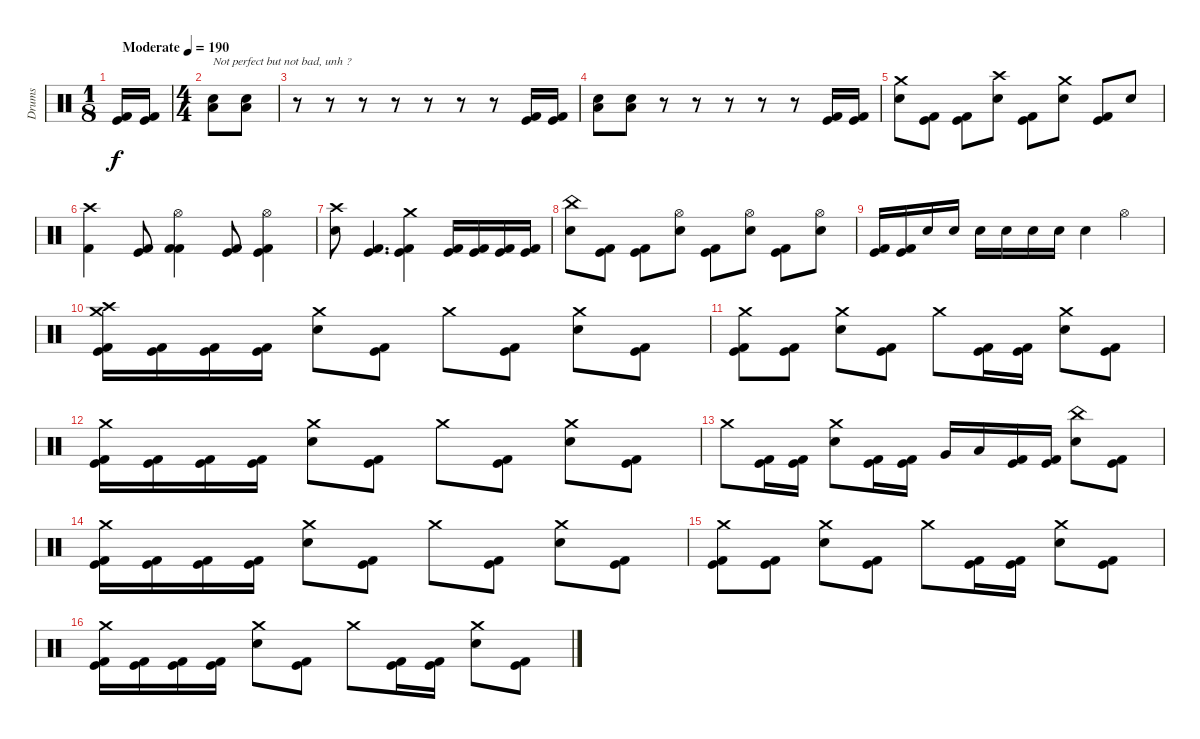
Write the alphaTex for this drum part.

\track ("Drums" "Drums") {instrument percussion}
\staff {score}
\articulation defaults
\ts (1 8)
\tempo (190 "Moderate")
\clef neutral
\ks c
("Kick (hit)" "Kick (hit) 2").16{dy f} ("Kick (hit)" "Kick (hit) 2").16 |
\ts (4 4)
("Electric Snare (hit)" "Low Floor Tom (hit)").8{txt "Not perfect but not bad, unh ?"} ("Electric Snare (hit)" "Low Floor Tom (hit)").8 |
r.8 r.8 r.8 r.8 r.8 r.8 r.8 ("Kick (hit)" "Kick (hit) 2").16 ("Kick (hit)" "Kick (hit) 2").16 |
("Electric Snare (hit)" "Low Floor Tom (hit)").8 ("Electric Snare (hit)" "Low Floor Tom (hit)").8 r.8 r.8 r.8 r.8 r.8 ("Kick (hit)" "Kick (hit) 2").16 ("Kick (hit)" "Kick (hit) 2").16 |
("Crash medium (hit)" "Electric Snare (hit)").8 ("Kick (hit)" "Kick (hit) 2").8 ("Kick (hit)" "Kick (hit) 2").8 ("Crash high (hit)" "Electric Snare (hit)").8 ("Kick (hit)" "Kick (hit) 2").8 ("Crash medium (hit)" "Electric Snare (hit)").8 ("Kick (hit)" "Kick (hit) 2").8 "Electric Snare (hit)".8 |
("Crash high (hit)" "Kick (hit) 2").4 ("Kick (hit)" "Kick (hit) 2").8 ("Hi-Hat (open)" "Kick (hit) 2" "Kick (hit) 2").4 ("Kick (hit)" "Kick (hit) 2").8 ("Hi-Hat (open)" "Kick (hit)" "Kick (hit) 2").4 |
("Crash high (hit)" "Electric Snare (hit)").8 ("Kick (hit)" "Kick (hit) 2").4{d} ("Crash medium (hit)" "Kick (hit)" "Kick (hit) 2").4 ("Kick (hit)" "Kick (hit) 2").16 ("Kick (hit)" "Kick (hit) 2").16 ("Kick (hit)" "Kick (hit) 2").16 ("Kick (hit)" "Kick (hit) 2").16 |
("China (hit)" "Electric Snare (hit)").8 ("Kick (hit)" "Kick (hit) 2").8 ("Kick (hit)" "Kick (hit) 2").8 ("Hi-Hat (open)" "Electric Snare (hit)").8 ("Kick (hit)" "Kick (hit) 2").8 ("Hi-Hat (open)" "Electric Snare (hit)").8 ("Kick (hit)" "Kick (hit) 2").8 ("Hi-Hat (open)" "Electric Snare (hit)").8 |
("Kick (hit)" "Kick (hit) 2").16 ("Kick (hit)" "Kick (hit) 2").16 "Electric Snare (hit)".16 "Electric Snare (hit)".16 "Electric Snare (hit)".16 "Electric Snare (hit)".16 "Electric Snare (hit)".16 "Electric Snare (hit)".16 "Electric Snare (hit)".4 "Hi-Hat (open)".4 |
("Crash high (hit)" "Crash medium (hit)" "Kick (hit)" "Kick (hit) 2").16 ("Kick (hit)" "Kick (hit) 2").16 ("Kick (hit)" "Kick (hit) 2").16 ("Kick (hit)" "Kick (hit) 2").16 ("Crash medium (hit)" "Electric Snare (hit)").8 ("Kick (hit)" "Kick (hit) 2").8 "Crash medium (hit)".8 ("Kick (hit)" "Kick (hit) 2").8 ("Crash medium (hit)" "Electric Snare (hit)").8 ("Kick (hit)" "Kick (hit) 2").8 |
("Crash medium (hit)" "Kick (hit)" "Kick (hit) 2").8 ("Kick (hit)" "Kick (hit) 2").8 ("Crash medium (hit)" "Electric Snare (hit)").8 ("Kick (hit)" "Kick (hit) 2").8 "Crash medium (hit)".8 ("Kick (hit)" "Kick (hit) 2").16 ("Kick (hit)" "Kick (hit) 2").16 ("Crash medium (hit)" "Electric Snare (hit)").8 ("Kick (hit)" "Kick (hit) 2").8 |
("Crash medium (hit)" "Kick (hit)" "Kick (hit) 2").16 ("Kick (hit)" "Kick (hit) 2").16 ("Kick (hit)" "Kick (hit) 2").16 ("Kick (hit)" "Kick (hit) 2").16 ("Crash medium (hit)" "Electric Snare (hit)").8 ("Kick (hit)" "Kick (hit) 2").8 "Crash medium (hit)".8 ("Kick (hit)" "Kick (hit) 2").8 ("Crash medium (hit)" "Electric Snare (hit)").8 ("Kick (hit)" "Kick (hit) 2").8 |
"Crash medium (hit)".8 ("Kick (hit)" "Kick (hit) 2").16 ("Kick (hit)" "Kick (hit) 2").16 ("Crash medium (hit)" "Electric Snare (hit)").8 ("Kick (hit)" "Kick (hit) 2").16 ("Kick (hit)" "Kick (hit) 2").16 "Very Low Tom (hit)".16 "Low Floor Tom (hit)".16 ("Kick (hit)" "Kick (hit) 2").16 ("Kick (hit)" "Kick (hit) 2").16 ("China (hit)" "Electric Snare (hit)").8 ("Kick (hit)" "Kick (hit) 2").8 |
("Crash medium (hit)" "Kick (hit)" "Kick (hit) 2").16 ("Kick (hit)" "Kick (hit) 2").16 ("Kick (hit)" "Kick (hit) 2").16 ("Kick (hit)" "Kick (hit) 2").16 ("Crash medium (hit)" "Electric Snare (hit)").8 ("Kick (hit)" "Kick (hit) 2").8 "Crash medium (hit)".8 ("Kick (hit)" "Kick (hit) 2").8 ("Crash medium (hit)" "Electric Snare (hit)").8 ("Kick (hit)" "Kick (hit) 2").8 |
("Crash medium (hit)" "Kick (hit)" "Kick (hit) 2").8 ("Kick (hit)" "Kick (hit) 2").8 ("Crash medium (hit)" "Electric Snare (hit)").8 ("Kick (hit)" "Kick (hit) 2").8 "Crash medium (hit)".8 ("Kick (hit)" "Kick (hit) 2").16 ("Kick (hit)" "Kick (hit) 2").16 ("Crash medium (hit)" "Electric Snare (hit)").8 ("Kick (hit)" "Kick (hit) 2").8 |
("Crash medium (hit)" "Kick (hit)" "Kick (hit) 2").16 ("Kick (hit)" "Kick (hit) 2").16 ("Kick (hit)" "Kick (hit) 2").16 ("Kick (hit)" "Kick (hit) 2").16 ("Crash medium (hit)" "Electric Snare (hit)").8 ("Kick (hit)" "Kick (hit) 2").8 "Crash medium (hit)".8 ("Kick (hit)" "Kick (hit) 2").16 ("Kick (hit)" "Kick (hit) 2").16 ("Crash medium (hit)" "Electric Snare (hit)").8 ("Kick (hit)" "Kick (hit) 2").8
